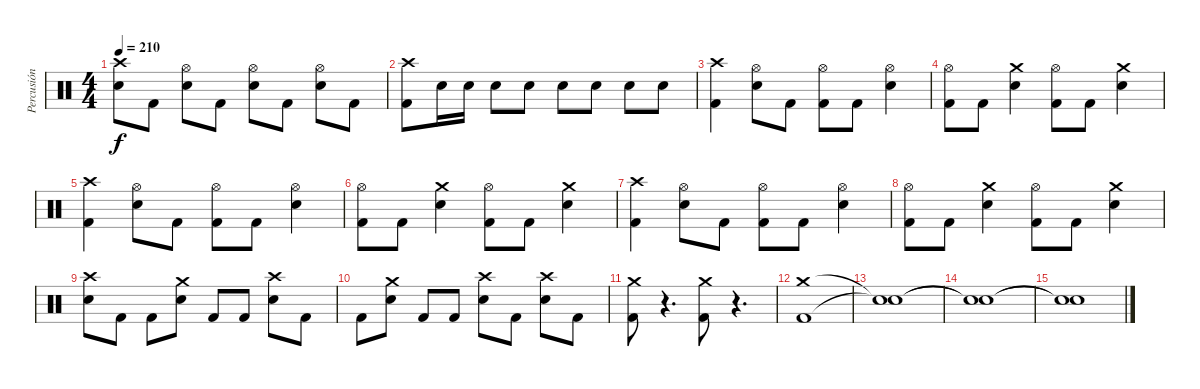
\track ("Percusión" "Percusión") {instrument percussion}
\staff {score}
\articulation defaults
\ts (4 4)
\tempo 210
\clef neutral
\ks c
("Crash high (hit)" "Electric Snare (hit)").8{dy f} "Kick (hit) 2".8 ("Hi-Hat (open)" "Electric Snare (hit)").8 "Kick (hit) 2".8 ("Hi-Hat (open)" "Electric Snare (hit)").8 "Kick (hit) 2".8 ("Hi-Hat (open)" "Electric Snare (hit)").8 "Kick (hit) 2".8 |
("Crash high (hit)" "Kick (hit) 2").8 "Electric Snare (hit)".16 "Electric Snare (hit)".16 "Electric Snare (hit)".8 "Electric Snare (hit)".8 "Electric Snare (hit)".8 "Electric Snare (hit)".8 "Electric Snare (hit)".8 "Electric Snare (hit)".8 |
("Crash high (hit)" "Kick (hit) 2").4 ("Hi-Hat (open)" "Electric Snare (hit)").8 "Kick (hit) 2".8 ("Hi-Hat (open)" "Kick (hit) 2").8 "Kick (hit) 2".8 ("Hi-Hat (open)" "Electric Snare (hit)").4 |
("Hi-Hat (open)" "Kick (hit) 2").8 "Kick (hit) 2".8 ("Crash medium (hit)" "Electric Snare (hit)").4 ("Hi-Hat (open)" "Kick (hit) 2").8 "Kick (hit) 2".8 ("Crash medium (hit)" "Electric Snare (hit)").4 |
("Crash high (hit)" "Kick (hit) 2").4 ("Hi-Hat (open)" "Electric Snare (hit)").8 "Kick (hit) 2".8 ("Hi-Hat (open)" "Kick (hit) 2").8 "Kick (hit) 2".8 ("Hi-Hat (open)" "Electric Snare (hit)").4 |
("Hi-Hat (open)" "Kick (hit) 2").8 "Kick (hit) 2".8 ("Crash medium (hit)" "Electric Snare (hit)").4 ("Hi-Hat (open)" "Kick (hit) 2").8 "Kick (hit) 2".8 ("Crash medium (hit)" "Electric Snare (hit)").4 |
("Crash high (hit)" "Kick (hit) 2").4 ("Hi-Hat (open)" "Electric Snare (hit)").8 "Kick (hit) 2".8 ("Hi-Hat (open)" "Kick (hit) 2").8 "Kick (hit) 2".8 ("Hi-Hat (open)" "Electric Snare (hit)").4 |
("Hi-Hat (open)" "Kick (hit) 2").8 "Kick (hit) 2".8 ("Crash medium (hit)" "Electric Snare (hit)").4 ("Hi-Hat (open)" "Kick (hit) 2").8 "Kick (hit) 2".8 ("Crash medium (hit)" "Electric Snare (hit)").4 |
("Crash high (hit)" "Electric Snare (hit)").8 "Kick (hit) 2".8 "Kick (hit) 2".8 ("Crash medium (hit)" "Electric Snare (hit)").8 "Kick (hit) 2".8 "Kick (hit) 2".8 ("Crash high (hit)" "Electric Snare (hit)").8 "Kick (hit) 2".8 |
"Kick (hit) 2".8 ("Crash medium (hit)" "Electric Snare (hit)").8 "Kick (hit) 2".8 "Kick (hit) 2".8 ("Crash high (hit)" "Electric Snare (hit)").8 "Kick (hit) 2".8 ("Crash high (hit)" "Electric Snare (hit)").8 "Kick (hit) 2".8 |
("Crash medium (hit)" "Kick (hit) 2").8 r.4{d} ("Crash medium (hit)" "Kick (hit) 2").8 r.4{d} |
("Crash medium (hit)" "Kick (hit) 2").1 |
("Snare (hit)"{t} "Snare (hit)"{t}).1 |
("Snare (hit)"{t} "Snare (hit)"{t}).1 |
("Snare (hit)"{t} "Snare (hit)"{t}).1
